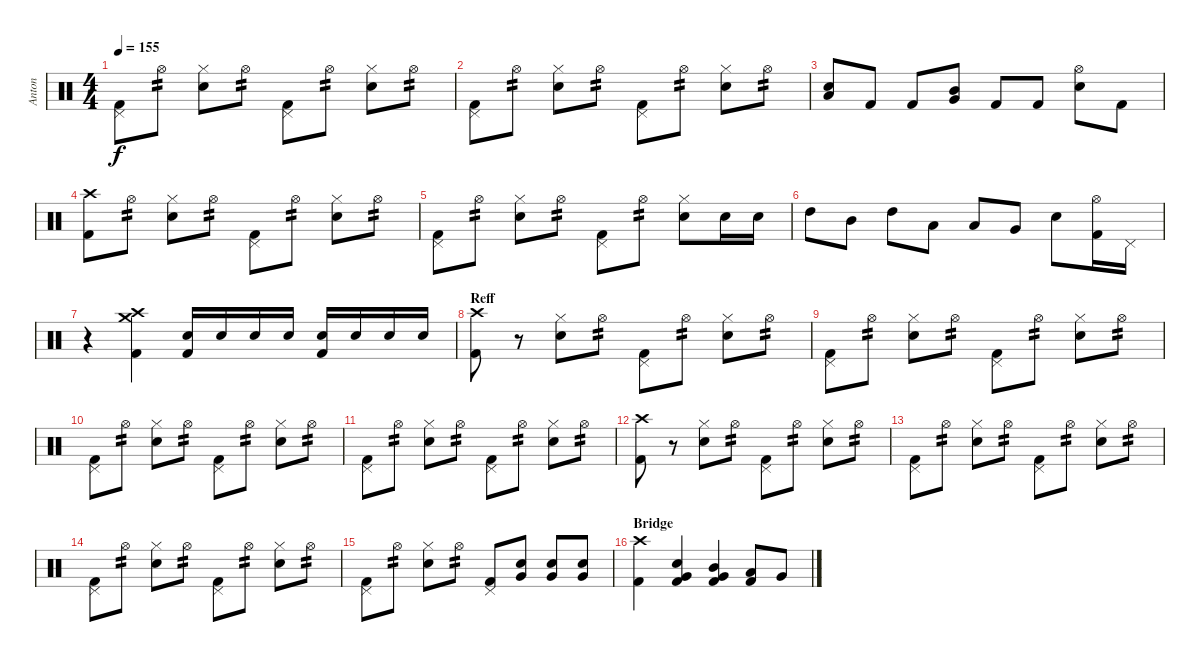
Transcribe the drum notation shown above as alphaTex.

\track ("Anton" "Anton") {instrument percussion}
\staff {score}
\articulation defaults
\ts (4 4)
\tempo 155
\clef neutral
\ks c
("Kick (hit) 2" "Pedal Hi-Hat (hit)").8{dy f} "Hi-Hat (open)".8{tp 2} ("Electric Snare (hit)" "Hi-Hat (closed)").8 "Hi-Hat (open)".8{tp 2} ("Kick (hit) 2" "Pedal Hi-Hat (hit)").8 "Hi-Hat (open)".8{tp 2} ("Electric Snare (hit)" "Hi-Hat (closed)").8 "Hi-Hat (open)".8{tp 2} |
("Kick (hit) 2" "Pedal Hi-Hat (hit)").8 "Hi-Hat (open)".8{tp 2} ("Electric Snare (hit)" "Hi-Hat (closed)").8 "Hi-Hat (open)".8{tp 2} ("Kick (hit) 2" "Pedal Hi-Hat (hit)").8 "Hi-Hat (open)".8{tp 2} ("Electric Snare (hit)" "Hi-Hat (closed)").8 "Hi-Hat (open)".8{tp 2} |
("Snare (hit) 2" "Low Tom (hit)").8 "Kick (hit) 2".8 "Kick (hit) 2".8 ("Mid Tom (hit)" "Very Low Tom (hit)").8 "Kick (hit) 2".8 "Kick (hit) 2".8 ("Snare (hit) 2" "Hi-Hat (open)").8 "Kick (hit) 2".8 |
("Kick (hit) 2" "Crash high (hit)").8 "Hi-Hat (open)".8{tp 2} ("Electric Snare (hit)" "Hi-Hat (closed)").8 "Hi-Hat (open)".8{tp 2} ("Kick (hit) 2" "Pedal Hi-Hat (hit)").8 "Hi-Hat (open)".8{tp 2} ("Electric Snare (hit)" "Hi-Hat (closed)").8 "Hi-Hat (open)".8{tp 2} |
("Kick (hit) 2" "Pedal Hi-Hat (hit)").8 "Hi-Hat (open)".8{tp 2} ("Electric Snare (hit)" "Hi-Hat (closed)").8 "Hi-Hat (open)".8{tp 2} ("Kick (hit) 2" "Pedal Hi-Hat (hit)").8 "Hi-Hat (open)".8{tp 2} ("Electric Snare (hit)" "Hi-Hat (closed)").8 "Electric Snare (hit)".16 "Electric Snare (hit)".16 |
"High Tom (hit)".8 "Mid Tom (hit)".8 "High Tom (hit)".8 "Low Tom (hit)".8 "Low Tom (hit)".8 "Very Low Tom (hit)".8 "Snare (hit) 2".8 ("Kick (hit) 2" "Hi-Hat (open)").16 "Pedal Hi-Hat (hit)".16 |
r.4 ("Kick (hit) 2" "Crash high (hit)" "Crash medium (hit)").4 ("Snare (hit) 2" "Kick (hit) 2").16 "Snare (hit) 2".16 "Snare (hit) 2".16 "Snare (hit) 2".16 ("Snare (hit) 2" "Kick (hit) 2").16 "Snare (hit) 2".16 "Snare (hit) 2".16 "Snare (hit) 2".16 |
\section ("" "Reff")
("Kick (hit) 2" "Crash high (hit)").8 r.8 ("Electric Snare (hit)" "Hi-Hat (closed)").8 "Hi-Hat (open)".8{tp 2} ("Kick (hit) 2" "Pedal Hi-Hat (hit)").8 "Hi-Hat (open)".8{tp 2} ("Electric Snare (hit)" "Hi-Hat (closed)").8 "Hi-Hat (open)".8{tp 2} |
("Kick (hit) 2" "Pedal Hi-Hat (hit)").8 "Hi-Hat (open)".8{tp 2} ("Electric Snare (hit)" "Hi-Hat (closed)").8 "Hi-Hat (open)".8{tp 2} ("Kick (hit) 2" "Pedal Hi-Hat (hit)").8 "Hi-Hat (open)".8{tp 2} ("Electric Snare (hit)" "Hi-Hat (closed)").8 "Hi-Hat (open)".8{tp 2} |
("Kick (hit) 2" "Pedal Hi-Hat (hit)").8 "Hi-Hat (open)".8{tp 2} ("Electric Snare (hit)" "Hi-Hat (closed)").8 "Hi-Hat (open)".8{tp 2} ("Kick (hit) 2" "Pedal Hi-Hat (hit)").8 "Hi-Hat (open)".8{tp 2} ("Electric Snare (hit)" "Hi-Hat (closed)").8 "Hi-Hat (open)".8{tp 2} |
("Kick (hit) 2" "Pedal Hi-Hat (hit)").8 "Hi-Hat (open)".8{tp 2} ("Electric Snare (hit)" "Hi-Hat (closed)").8 "Hi-Hat (open)".8{tp 2} ("Kick (hit) 2" "Pedal Hi-Hat (hit)").8 "Hi-Hat (open)".8{tp 2} ("Electric Snare (hit)" "Hi-Hat (closed)").8 "Hi-Hat (open)".8{tp 2} |
("Kick (hit) 2" "Crash high (hit)").8 r.8 ("Electric Snare (hit)" "Hi-Hat (closed)").8 "Hi-Hat (open)".8{tp 2} ("Kick (hit) 2" "Pedal Hi-Hat (hit)").8 "Hi-Hat (open)".8{tp 2} ("Electric Snare (hit)" "Hi-Hat (closed)").8 "Hi-Hat (open)".8{tp 2} |
("Kick (hit) 2" "Pedal Hi-Hat (hit)").8 "Hi-Hat (open)".8{tp 2} ("Electric Snare (hit)" "Hi-Hat (closed)").8 "Hi-Hat (open)".8{tp 2} ("Kick (hit) 2" "Pedal Hi-Hat (hit)").8 "Hi-Hat (open)".8{tp 2} ("Electric Snare (hit)" "Hi-Hat (closed)").8 "Hi-Hat (open)".8{tp 2} |
("Kick (hit) 2" "Pedal Hi-Hat (hit)").8 "Hi-Hat (open)".8{tp 2} ("Electric Snare (hit)" "Hi-Hat (closed)").8 "Hi-Hat (open)".8{tp 2} ("Kick (hit) 2" "Pedal Hi-Hat (hit)").8 "Hi-Hat (open)".8{tp 2} ("Electric Snare (hit)" "Hi-Hat (closed)").8 "Hi-Hat (open)".8{tp 2} |
("Kick (hit) 2" "Pedal Hi-Hat (hit)").8 "Hi-Hat (open)".8{tp 2} ("Electric Snare (hit)" "Hi-Hat (closed)").8 "Hi-Hat (open)".8{tp 2} ("Kick (hit) 2" "Pedal Hi-Hat (hit)").8 ("Snare (hit) 2" "Very Low Tom (hit)").8 ("Snare (hit) 2" "Very Low Tom (hit)").8 ("Snare (hit) 2" "Very Low Tom (hit)").8 |
\section ("" "Bridge")
("Kick (hit) 2" "Crash high (hit)").4 ("Kick (hit) 2" "Snare (hit) 2" "Very Low Tom (hit)").4 ("Kick (hit) 2" "Mid Tom (hit)" "Very Low Tom (hit)").4 ("Kick (hit) 2" "Low Tom (hit)").8 "Very Low Tom (hit)".8
